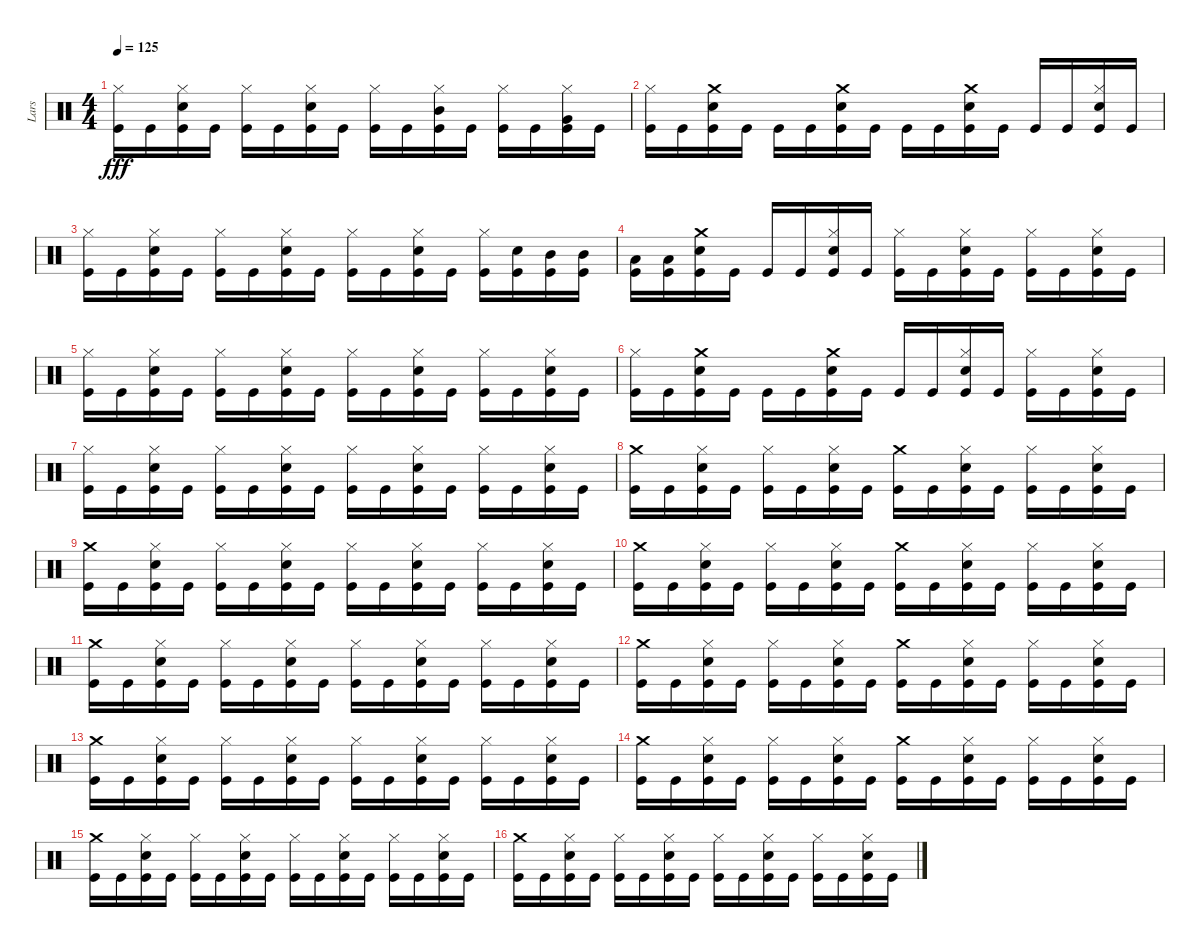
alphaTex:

\track ("Lars" "Lars") {instrument percussion bank 102}
\staff {score}
\articulation defaults
\ts (4 4)
\tempo 125
\clef neutral
\ks c
("Kick (hit)" "Hi-Hat (closed)").16{dy fff} "Kick (hit)".16 ("Kick (hit)" "Snare (hit) 2" "Hi-Hat (closed)").16 "Kick (hit)".16 ("Kick (hit)" "Hi-Hat (closed)").16 "Kick (hit)".16 ("Kick (hit)" "Snare (hit) 2" "Hi-Hat (closed)").16 "Kick (hit)".16 ("Kick (hit)" "Hi-Hat (closed)").16 "Kick (hit)".16 ("Mid Tom (hit)" "Kick (hit)" "Hi-Hat (closed)").16 "Kick (hit)".16 ("Kick (hit)" "Hi-Hat (closed)").16 "Kick (hit)".16 ("Very Low Tom (hit)" "Kick (hit)" "Hi-Hat (closed)").16 "Kick (hit)".16 |
("Kick (hit)" "Hi-Hat (closed)").16 "Kick (hit)".16 ("Crash medium (hit)" "Kick (hit)" "Snare (hit) 2").16 "Kick (hit)".16 "Kick (hit)".16 "Kick (hit)".16 ("Crash medium (hit)" "Kick (hit)" "Snare (hit) 2").16 "Kick (hit)".16 "Kick (hit)".16 "Kick (hit)".16 ("Crash medium (hit)" "Kick (hit)" "Snare (hit) 2").16 "Kick (hit)".16 "Kick (hit)".16 "Kick (hit)".16 ("Kick (hit)" "Snare (hit) 2" "Hi-Hat (closed)").16 "Kick (hit)".16 |
("Kick (hit)" "Hi-Hat (closed)").16 "Kick (hit)".16 ("Kick (hit)" "Snare (hit) 2" "Hi-Hat (closed)").16 "Kick (hit)".16 ("Kick (hit)" "Hi-Hat (closed)").16 "Kick (hit)".16 ("Kick (hit)" "Snare (hit) 2" "Hi-Hat (closed)").16 "Kick (hit)".16 ("Kick (hit)" "Hi-Hat (closed)").16 "Kick (hit)".16 ("Kick (hit)" "Snare (hit) 2" "Hi-Hat (closed)").16 "Kick (hit)".16 ("Hi-Hat (closed)" "Kick (hit)").16 ("Snare (hit) 2" "Kick (hit)").16 ("Mid Tom (hit)" "Kick (hit)").16 ("Mid Tom (hit)" "Kick (hit)").16 |
("Low Tom (hit)" "Kick (hit)").16 ("Low Tom (hit)" "Kick (hit)").16 ("Crash medium (hit)" "Kick (hit)" "Snare (hit) 2").16 "Kick (hit)".16 "Kick (hit)".16 "Kick (hit)".16 ("Kick (hit)" "Snare (hit) 2" "Hi-Hat (closed)").16 "Kick (hit)".16 ("Kick (hit)" "Hi-Hat (closed)").16 "Kick (hit)".16 ("Kick (hit)" "Snare (hit) 2" "Hi-Hat (closed)").16 "Kick (hit)".16 ("Kick (hit)" "Hi-Hat (closed)").16 "Kick (hit)".16 ("Kick (hit)" "Snare (hit) 2" "Hi-Hat (closed)").16 "Kick (hit)".16 |
("Kick (hit)" "Hi-Hat (closed)").16 "Kick (hit)".16 ("Kick (hit)" "Snare (hit) 2" "Hi-Hat (closed)").16 "Kick (hit)".16 ("Kick (hit)" "Hi-Hat (closed)").16 "Kick (hit)".16 ("Kick (hit)" "Snare (hit) 2" "Hi-Hat (closed)").16 "Kick (hit)".16 ("Kick (hit)" "Hi-Hat (closed)").16 "Kick (hit)".16 ("Kick (hit)" "Snare (hit) 2" "Hi-Hat (closed)").16 "Kick (hit)".16 ("Kick (hit)" "Hi-Hat (closed)").16 "Kick (hit)".16 ("Kick (hit)" "Snare (hit) 2" "Hi-Hat (closed)").16 "Kick (hit)".16 |
("Kick (hit)" "Hi-Hat (closed)").16 "Kick (hit)".16 ("Crash medium (hit)" "Kick (hit)" "Snare (hit) 2").16 "Kick (hit)".16 "Kick (hit)".16 "Kick (hit)".16 ("Crash medium (hit)" "Kick (hit)" "Snare (hit) 2").16 "Kick (hit)".16 "Kick (hit)".16 "Kick (hit)".16 ("Kick (hit)" "Snare (hit) 2" "Hi-Hat (closed)").16 "Kick (hit)".16 ("Kick (hit)" "Hi-Hat (closed)").16 "Kick (hit)".16 ("Kick (hit)" "Snare (hit) 2" "Hi-Hat (closed)").16 "Kick (hit)".16 |
("Kick (hit)" "Hi-Hat (closed)").16 "Kick (hit)".16 ("Kick (hit)" "Snare (hit) 2" "Hi-Hat (closed)").16 "Kick (hit)".16 ("Kick (hit)" "Hi-Hat (closed)").16 "Kick (hit)".16 ("Kick (hit)" "Snare (hit) 2" "Hi-Hat (closed)").16 "Kick (hit)".16 ("Kick (hit)" "Hi-Hat (closed)").16 "Kick (hit)".16 ("Kick (hit)" "Snare (hit) 2" "Hi-Hat (closed)").16 "Kick (hit)".16 ("Kick (hit)" "Hi-Hat (closed)").16 "Kick (hit)".16 ("Kick (hit)" "Snare (hit) 2" "Hi-Hat (closed)").16 "Kick (hit)".16 |
("Crash medium (hit)" "Kick (hit)").16 "Kick (hit)".16 ("Kick (hit)" "Snare (hit) 2" "Hi-Hat (closed)").16 "Kick (hit)".16 ("Kick (hit)" "Hi-Hat (closed)").16 "Kick (hit)".16 ("Kick (hit)" "Snare (hit) 2" "Hi-Hat (closed)").16 "Kick (hit)".16 ("Crash medium (hit)" "Kick (hit)").16 "Kick (hit)".16 ("Kick (hit)" "Snare (hit) 2" "Hi-Hat (closed)").16 "Kick (hit)".16 ("Kick (hit)" "Hi-Hat (closed)").16 "Kick (hit)".16 ("Kick (hit)" "Snare (hit) 2" "Hi-Hat (closed)").16 "Kick (hit)".16 |
("Crash medium (hit)" "Kick (hit)").16 "Kick (hit)".16 ("Kick (hit)" "Snare (hit) 2" "Hi-Hat (closed)").16 "Kick (hit)".16 ("Kick (hit)" "Hi-Hat (closed)").16 "Kick (hit)".16 ("Kick (hit)" "Snare (hit) 2" "Hi-Hat (closed)").16 "Kick (hit)".16 ("Kick (hit)" "Hi-Hat (closed)").16 "Kick (hit)".16 ("Kick (hit)" "Snare (hit) 2" "Hi-Hat (closed)").16 "Kick (hit)".16 ("Kick (hit)" "Hi-Hat (closed)").16 "Kick (hit)".16 ("Kick (hit)" "Snare (hit) 2" "Hi-Hat (closed)").16 "Kick (hit)".16 |
("Crash medium (hit)" "Kick (hit)").16 "Kick (hit)".16 ("Kick (hit)" "Snare (hit) 2" "Hi-Hat (closed)").16 "Kick (hit)".16 ("Kick (hit)" "Hi-Hat (closed)").16 "Kick (hit)".16 ("Kick (hit)" "Snare (hit) 2" "Hi-Hat (closed)").16 "Kick (hit)".16 ("Crash medium (hit)" "Kick (hit)").16 "Kick (hit)".16 ("Kick (hit)" "Snare (hit) 2" "Hi-Hat (closed)").16 "Kick (hit)".16 ("Kick (hit)" "Hi-Hat (closed)").16 "Kick (hit)".16 ("Kick (hit)" "Snare (hit) 2" "Hi-Hat (closed)").16 "Kick (hit)".16 |
("Crash medium (hit)" "Kick (hit)").16 "Kick (hit)".16 ("Kick (hit)" "Snare (hit) 2" "Hi-Hat (closed)").16 "Kick (hit)".16 ("Kick (hit)" "Hi-Hat (closed)").16 "Kick (hit)".16 ("Kick (hit)" "Snare (hit) 2" "Hi-Hat (closed)").16 "Kick (hit)".16 ("Kick (hit)" "Hi-Hat (closed)").16 "Kick (hit)".16 ("Kick (hit)" "Snare (hit) 2" "Hi-Hat (closed)").16 "Kick (hit)".16 ("Kick (hit)" "Hi-Hat (closed)").16 "Kick (hit)".16 ("Kick (hit)" "Snare (hit) 2" "Hi-Hat (closed)").16 "Kick (hit)".16 |
("Crash medium (hit)" "Kick (hit)").16 "Kick (hit)".16 ("Kick (hit)" "Snare (hit) 2" "Hi-Hat (closed)").16 "Kick (hit)".16 ("Kick (hit)" "Hi-Hat (closed)").16 "Kick (hit)".16 ("Kick (hit)" "Snare (hit) 2" "Hi-Hat (closed)").16 "Kick (hit)".16 ("Crash medium (hit)" "Kick (hit)").16 "Kick (hit)".16 ("Kick (hit)" "Snare (hit) 2" "Hi-Hat (closed)").16 "Kick (hit)".16 ("Kick (hit)" "Hi-Hat (closed)").16 "Kick (hit)".16 ("Kick (hit)" "Snare (hit) 2" "Hi-Hat (closed)").16 "Kick (hit)".16 |
("Crash medium (hit)" "Kick (hit)").16 "Kick (hit)".16 ("Kick (hit)" "Snare (hit) 2" "Hi-Hat (closed)").16 "Kick (hit)".16 ("Kick (hit)" "Hi-Hat (closed)").16 "Kick (hit)".16 ("Kick (hit)" "Snare (hit) 2" "Hi-Hat (closed)").16 "Kick (hit)".16 ("Kick (hit)" "Hi-Hat (closed)").16 "Kick (hit)".16 ("Kick (hit)" "Snare (hit) 2" "Hi-Hat (closed)").16 "Kick (hit)".16 ("Kick (hit)" "Hi-Hat (closed)").16 "Kick (hit)".16 ("Kick (hit)" "Snare (hit) 2" "Hi-Hat (closed)").16 "Kick (hit)".16 |
("Crash medium (hit)" "Kick (hit)").16 "Kick (hit)".16 ("Kick (hit)" "Snare (hit) 2" "Hi-Hat (closed)").16 "Kick (hit)".16 ("Kick (hit)" "Hi-Hat (closed)").16 "Kick (hit)".16 ("Kick (hit)" "Snare (hit) 2" "Hi-Hat (closed)").16 "Kick (hit)".16 ("Crash medium (hit)" "Kick (hit)").16 "Kick (hit)".16 ("Kick (hit)" "Snare (hit) 2" "Hi-Hat (closed)").16 "Kick (hit)".16 ("Kick (hit)" "Hi-Hat (closed)").16 "Kick (hit)".16 ("Kick (hit)" "Snare (hit) 2" "Hi-Hat (closed)").16 "Kick (hit)".16 |
("Crash medium (hit)" "Kick (hit)").16 "Kick (hit)".16 ("Kick (hit)" "Snare (hit) 2" "Hi-Hat (closed)").16 "Kick (hit)".16 ("Kick (hit)" "Hi-Hat (closed)").16 "Kick (hit)".16 ("Kick (hit)" "Snare (hit) 2" "Hi-Hat (closed)").16 "Kick (hit)".16 ("Kick (hit)" "Hi-Hat (closed)").16 "Kick (hit)".16 ("Kick (hit)" "Snare (hit) 2" "Hi-Hat (closed)").16 "Kick (hit)".16 ("Kick (hit)" "Hi-Hat (closed)").16 "Kick (hit)".16 ("Kick (hit)" "Snare (hit) 2" "Hi-Hat (closed)").16 "Kick (hit)".16 |
("Crash medium (hit)" "Kick (hit)").16 "Kick (hit)".16 ("Kick (hit)" "Snare (hit) 2" "Hi-Hat (closed)").16 "Kick (hit)".16 ("Kick (hit)" "Hi-Hat (closed)").16 "Kick (hit)".16 ("Kick (hit)" "Snare (hit) 2" "Hi-Hat (closed)").16 "Kick (hit)".16 ("Kick (hit)" "Hi-Hat (closed)").16 "Kick (hit)".16 ("Kick (hit)" "Snare (hit) 2" "Hi-Hat (closed)").16 "Kick (hit)".16 ("Kick (hit)" "Hi-Hat (closed)").16 "Kick (hit)".16 ("Kick (hit)" "Snare (hit) 2" "Hi-Hat (closed)").16 "Kick (hit)".16
